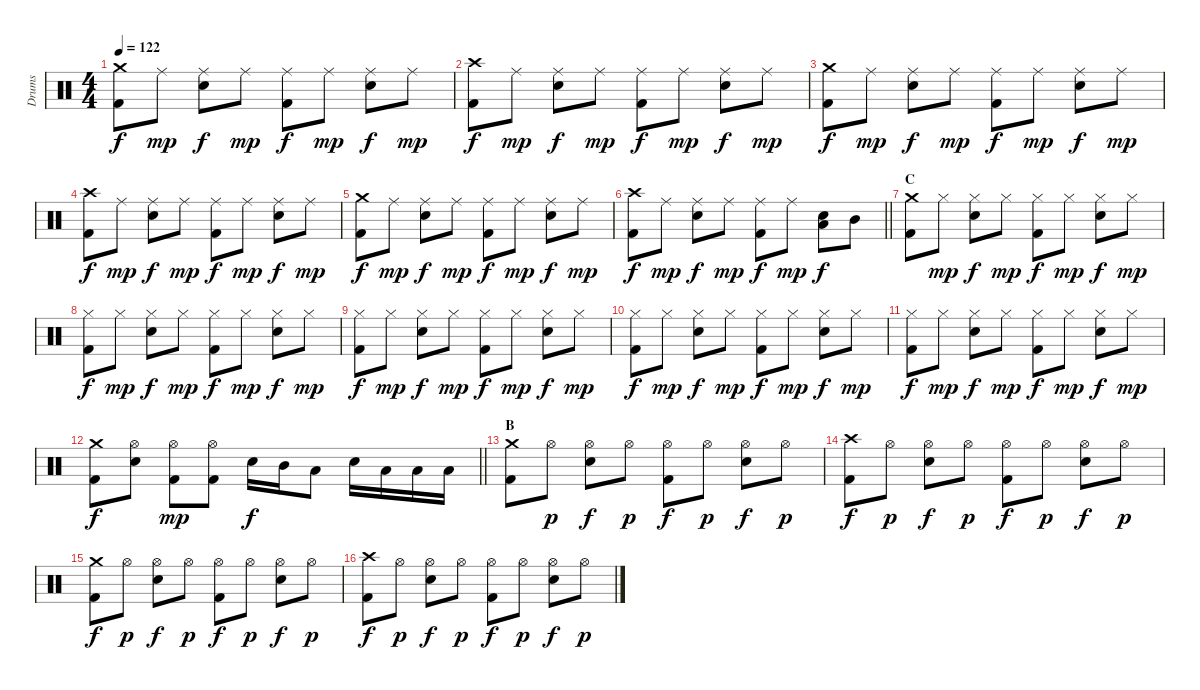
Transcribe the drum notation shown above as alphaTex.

\track ("Drums" "Drums") {instrument percussion}
\staff {score}
\articulation defaults
\ts (4 4)
\tempo 122
\clef neutral
\ks c
("Kick (hit) 2" "Crash medium (hit)").8{dy f} "Ride (middle)".8{dy mp} ("Electric Snare (hit)" "Ride (middle)").8{dy f} "Ride (middle)".8{dy mp} ("Kick (hit) 2" "Ride (middle)").8{dy f} "Ride (middle)".8{dy mp} ("Electric Snare (hit)" "Ride (middle)").8{dy f} "Ride (middle)".8{dy mp} |
("Kick (hit) 2" "Crash high (hit)").8{dy f} "Ride (middle)".8{dy mp} ("Electric Snare (hit)" "Ride (middle)").8{dy f} "Ride (middle)".8{dy mp} ("Kick (hit) 2" "Ride (middle)").8{dy f} "Ride (middle)".8{dy mp} ("Electric Snare (hit)" "Ride (middle)").8{dy f} "Ride (middle)".8{dy mp} |
("Kick (hit) 2" "Crash medium (hit)").8{dy f} "Ride (middle)".8{dy mp} ("Electric Snare (hit)" "Ride (middle)").8{dy f} "Ride (middle)".8{dy mp} ("Kick (hit) 2" "Ride (middle)").8{dy f} "Ride (middle)".8{dy mp} ("Electric Snare (hit)" "Ride (middle)").8{dy f} "Ride (middle)".8{dy mp} |
("Kick (hit) 2" "Crash high (hit)").8{dy f} "Ride (middle)".8{dy mp} ("Electric Snare (hit)" "Ride (middle)").8{dy f} "Ride (middle)".8{dy mp} ("Kick (hit) 2" "Ride (middle)").8{dy f} "Ride (middle)".8{dy mp} ("Electric Snare (hit)" "Ride (middle)").8{dy f} "Ride (middle)".8{dy mp} |
("Kick (hit) 2" "Crash medium (hit)").8{dy f} "Ride (middle)".8{dy mp} ("Electric Snare (hit)" "Ride (middle)").8{dy f} "Ride (middle)".8{dy mp} ("Kick (hit) 2" "Ride (middle)").8{dy f} "Ride (middle)".8{dy mp} ("Electric Snare (hit)" "Ride (middle)").8{dy f} "Ride (middle)".8{dy mp} |
\barLineRight lightlight
("Kick (hit) 2" "Crash high (hit)").8{dy f} "Ride (middle)".8{dy mp} ("Electric Snare (hit)" "Ride (middle)").8{dy f} "Ride (middle)".8{dy mp} ("Kick (hit) 2" "Ride (middle)").8{dy f} "Ride (middle)".8{dy mp} ("Electric Snare (hit)" "Low Floor Tom (hit)").8{dy f} "Mid Tom (hit)".8 |
\section ("" "C")
("Crash medium (hit)" "Kick (hit) 2").8 "Hi-Hat (closed)".8{dy mp} ("Hi-Hat (closed)" "Electric Snare (hit)").8{dy f} "Hi-Hat (closed)".8{dy mp} ("Hi-Hat (closed)" "Kick (hit) 2").8{dy f} "Hi-Hat (closed)".8{dy mp} ("Hi-Hat (closed)" "Electric Snare (hit)").8{dy f} "Hi-Hat (closed)".8{dy mp} |
("Hi-Hat (closed)" "Kick (hit) 2").8{dy f} "Hi-Hat (closed)".8{dy mp} ("Hi-Hat (closed)" "Electric Snare (hit)").8{dy f} "Hi-Hat (closed)".8{dy mp} ("Hi-Hat (closed)" "Kick (hit) 2").8{dy f} "Hi-Hat (closed)".8{dy mp} ("Hi-Hat (closed)" "Electric Snare (hit)").8{dy f} "Hi-Hat (closed)".8{dy mp} |
("Hi-Hat (closed)" "Kick (hit) 2").8{dy f} "Hi-Hat (closed)".8{dy mp} ("Hi-Hat (closed)" "Electric Snare (hit)").8{dy f} "Hi-Hat (closed)".8{dy mp} ("Hi-Hat (closed)" "Kick (hit) 2").8{dy f} "Hi-Hat (closed)".8{dy mp} ("Hi-Hat (closed)" "Electric Snare (hit)").8{dy f} "Hi-Hat (closed)".8{dy mp} |
("Hi-Hat (closed)" "Kick (hit) 2").8{dy f} "Hi-Hat (closed)".8{dy mp} ("Hi-Hat (closed)" "Electric Snare (hit)").8{dy f} "Hi-Hat (closed)".8{dy mp} ("Hi-Hat (closed)" "Kick (hit) 2").8{dy f} "Hi-Hat (closed)".8{dy mp} ("Hi-Hat (closed)" "Electric Snare (hit)").8{dy f} "Hi-Hat (closed)".8{dy mp} |
("Hi-Hat (closed)" "Kick (hit) 2").8{dy f} "Hi-Hat (closed)".8{dy mp} ("Hi-Hat (closed)" "Electric Snare (hit)").8{dy f} "Hi-Hat (closed)".8{dy mp} ("Hi-Hat (closed)" "Kick (hit) 2").8{dy f} "Hi-Hat (closed)".8{dy mp} ("Hi-Hat (closed)" "Electric Snare (hit)").8{dy f} "Hi-Hat (closed)".8{dy mp} |
\barLineRight lightlight
("Crash medium (hit)" "Kick (hit) 2").8{dy f} ("Electric Snare (hit)" "Hi-Hat (open)").8 ("Kick (hit) 2" "Hi-Hat (open)").8{dy mp} ("Kick (hit) 2" "Hi-Hat (open)").8 "Electric Snare (hit)".16{dy f} "Mid Tom (hit)".16 "Low Tom (hit)".8 "Electric Snare (hit)".16 "Low Tom (hit)".16 "Low Floor Tom (hit)".16 "Low Floor Tom (hit)".16 |
\section ("" "B")
("Crash medium (hit)" "Kick (hit) 2").8 "Hi-Hat (open)".8{dy p} ("Hi-Hat (open)" "Electric Snare (hit)").8{dy f} "Hi-Hat (open)".8{dy p} ("Hi-Hat (open)" "Kick (hit) 2").8{dy f} "Hi-Hat (open)".8{dy p} ("Hi-Hat (open)" "Electric Snare (hit)").8{dy f} "Hi-Hat (open)".8{dy p} |
("Crash high (hit)" "Kick (hit) 2").8{dy f} "Hi-Hat (open)".8{dy p} ("Hi-Hat (open)" "Electric Snare (hit)").8{dy f} "Hi-Hat (open)".8{dy p} ("Hi-Hat (open)" "Kick (hit) 2").8{dy f} "Hi-Hat (open)".8{dy p} ("Hi-Hat (open)" "Electric Snare (hit)").8{dy f} "Hi-Hat (open)".8{dy p} |
("Crash medium (hit)" "Kick (hit) 2").8{dy f} "Hi-Hat (open)".8{dy p} ("Hi-Hat (open)" "Electric Snare (hit)").8{dy f} "Hi-Hat (open)".8{dy p} ("Hi-Hat (open)" "Kick (hit) 2").8{dy f} "Hi-Hat (open)".8{dy p} ("Hi-Hat (open)" "Electric Snare (hit)").8{dy f} "Hi-Hat (open)".8{dy p} |
("Crash high (hit)" "Kick (hit) 2").8{dy f} "Hi-Hat (open)".8{dy p} ("Hi-Hat (open)" "Electric Snare (hit)").8{dy f} "Hi-Hat (open)".8{dy p} ("Hi-Hat (open)" "Kick (hit) 2").8{dy f} "Hi-Hat (open)".8{dy p} ("Hi-Hat (open)" "Electric Snare (hit)").8{dy f} "Hi-Hat (open)".8{dy p}
